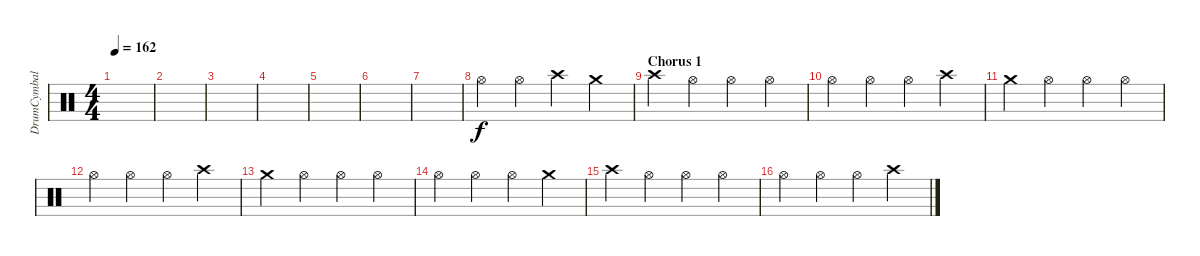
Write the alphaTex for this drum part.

\track ("DrumCymbal" "DrumCymbal") {instrument percussion}
\staff {score}
\articulation defaults
\ts (4 4)
\tempo 162
\clef neutral
\ks c
|
|
|
|
|
|
|
"Hi-Hat (open)".4 "Hi-Hat (open)".4 "Crash high (hit)".4 "Crash medium (hit)".4 |
\section ("" "Chorus 1")
"Crash high (hit)".4 "Hi-Hat (open)".4 "Hi-Hat (open)".4 "Hi-Hat (open)".4 |
"Hi-Hat (open)".4 "Hi-Hat (open)".4 "Hi-Hat (open)".4 "Crash high (hit)".4 |
"Crash medium (hit)".4 "Hi-Hat (open)".4 "Hi-Hat (open)".4 "Hi-Hat (open)".4 |
"Hi-Hat (open)".4 "Hi-Hat (open)".4 "Hi-Hat (open)".4 "Crash high (hit)".4 |
"Crash medium (hit)".4 "Hi-Hat (open)".4 "Hi-Hat (open)".4 "Hi-Hat (open)".4 |
"Hi-Hat (open)".4 "Hi-Hat (open)".4 "Hi-Hat (open)".4 "Crash medium (hit)".4 |
"Crash high (hit)".4 "Hi-Hat (open)".4 "Hi-Hat (open)".4 "Hi-Hat (open)".4 |
"Hi-Hat (open)".4 "Hi-Hat (open)".4 "Hi-Hat (open)".4 "Crash high (hit)".4
